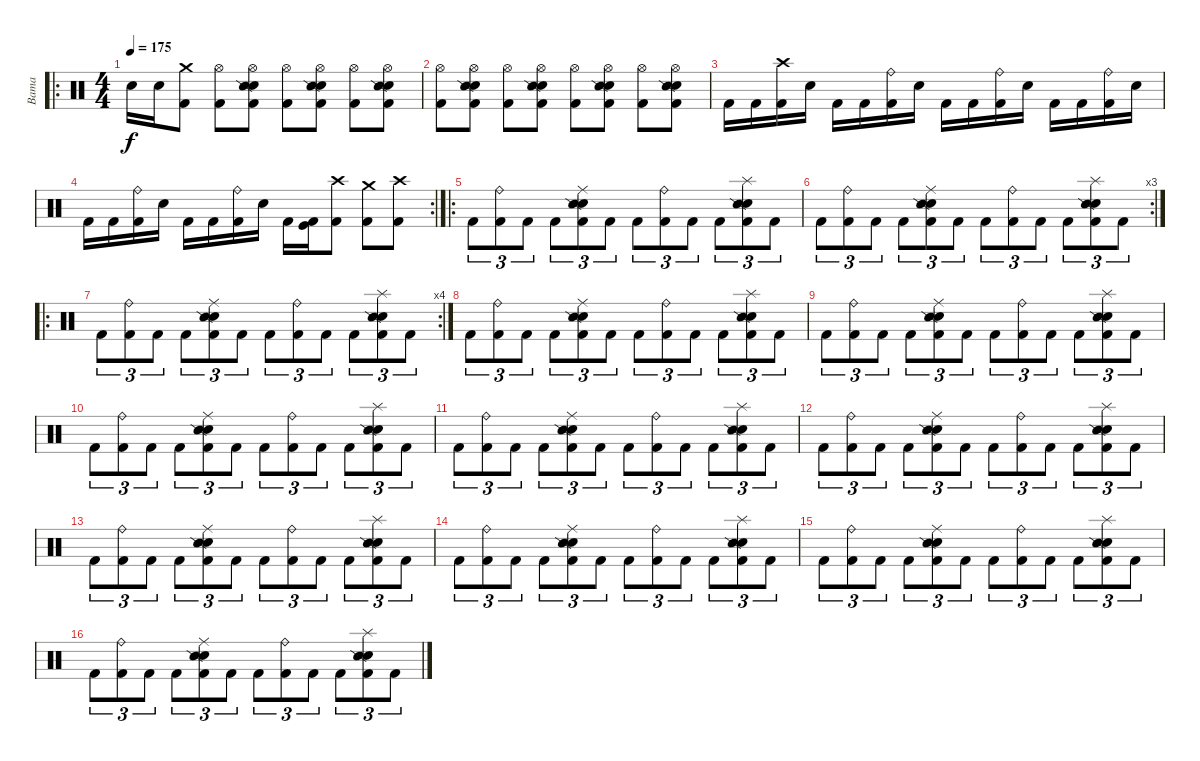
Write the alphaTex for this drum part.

\track ("Bama" "Bama") {instrument percussion}
\staff {score}
\articulation defaults
\ro
\ts (4 4)
\tempo 175
\clef neutral
\ks c "Electric Snare (hit)".16{dy f} "Electric Snare (hit)".16
("Crash medium (hit)" "Kick (hit) 2").8 ("Hi-Hat (open)" "Kick (hit) 2").8 ("Hi-Hat (open)" "Electric Snare (hit)" "Snare (side stick) 2" "Kick (hit) 2").8 ("Hi-Hat (open)" "Kick (hit) 2").8 ("Hi-Hat (open)" "Electric Snare (hit)" "Snare (side stick) 2" "Kick (hit) 2").8 ("Hi-Hat (open)" "Kick (hit) 2").8 ("Hi-Hat (open)" "Electric Snare (hit)" "Snare (side stick) 2" "Kick (hit) 2").8 |
("Hi-Hat (open)" "Kick (hit) 2").8 ("Hi-Hat (open)" "Electric Snare (hit)" "Snare (side stick) 2" "Kick (hit) 2").8 ("Hi-Hat (open)" "Kick (hit) 2").8 ("Hi-Hat (open)" "Electric Snare (hit)" "Snare (side stick) 2" "Kick (hit) 2").8 ("Hi-Hat (open)" "Kick (hit) 2").8 ("Hi-Hat (open)" "Electric Snare (hit)" "Snare (side stick) 2" "Kick (hit) 2").8 ("Hi-Hat (open)" "Kick (hit) 2").8 ("Hi-Hat (open)" "Electric Snare (hit)" "Snare (side stick) 2" "Kick (hit) 2").8 |
"Kick (hit) 2".16 "Kick (hit) 2".16 ("Crash high (hit)" "Kick (hit) 2").16 "Electric Snare (hit)".16 "Kick (hit) 2".16 "Kick (hit) 2".16 ("Ride (bell)" "Kick (hit) 2").16 "Electric Snare (hit)".16 "Kick (hit) 2".16 "Kick (hit) 2".16 ("Ride (bell)" "Kick (hit) 2").16 "Electric Snare (hit)".16 "Kick (hit) 2".16 "Kick (hit) 2".16 ("Ride (bell)" "Kick (hit) 2").16 "Electric Snare (hit)".16 |
\rc 2 "Kick (hit) 2".16 "Kick (hit) 2".16
("Ride (bell)" "Kick (hit) 2").16 "Electric Snare (hit)".16 "Kick (hit) 2".16 "Kick (hit) 2".16 ("Ride (bell)" "Kick (hit) 2").16 "Electric Snare (hit)".16 "Kick (hit) 2".16 ("Kick (hit)" "Kick (hit) 2").16 ("Crash high (hit)" "Kick (hit) 2").8 ("Crash medium (hit)" "Kick (hit) 2").8 ("Crash high (hit)" "Kick (hit) 2").8 |
\ro "Kick (hit) 2".8{tu (3 2)}
("Ride (bell)" "Kick (hit) 2").8{tu (3 2)} "Kick (hit) 2".8{tu (3 2)} "Kick (hit) 2".8{tu (3 2)} ("Ride (middle)" "Electric Snare (hit)" "Snare (side stick) 2" "Kick (hit) 2").8{tu (3 2)} "Kick (hit) 2".8{tu (3 2)} "Kick (hit) 2".8{tu (3 2)} ("Ride (bell)" "Kick (hit) 2").8{tu (3 2)} "Kick (hit) 2".8{tu (3 2)} "Kick (hit) 2".8{tu (3 2)} ("Splash (hit)" "Electric Snare (hit)" "Snare (side stick) 2" "Kick (hit) 2").8{tu (3 2)} "Kick (hit) 2".8{tu (3 2)} |
\rc 3 "Kick (hit) 2".8{tu (3 2)}
("Ride (bell)" "Kick (hit) 2").8{tu (3 2)} "Kick (hit) 2".8{tu (3 2)} "Kick (hit) 2".8{tu (3 2)} ("Ride (middle)" "Electric Snare (hit)" "Snare (side stick) 2" "Kick (hit) 2").8{tu (3 2)} "Kick (hit) 2".8{tu (3 2)} "Kick (hit) 2".8{tu (3 2)} ("Ride (bell)" "Kick (hit) 2").8{tu (3 2)} "Kick (hit) 2".8{tu (3 2)} "Kick (hit) 2".8{tu (3 2)} ("Splash (hit)" "Electric Snare (hit)" "Snare (side stick) 2" "Kick (hit) 2").8{tu (3 2)} "Kick (hit) 2".8{tu (3 2)} |
\ro
\rc 4 "Kick (hit) 2".8{tu (3 2)}
("Ride (bell)" "Kick (hit) 2").8{tu (3 2)} "Kick (hit) 2".8{tu (3 2)} "Kick (hit) 2".8{tu (3 2)} ("Ride (middle)" "Electric Snare (hit)" "Snare (side stick) 2" "Kick (hit) 2").8{tu (3 2)} "Kick (hit) 2".8{tu (3 2)} "Kick (hit) 2".8{tu (3 2)} ("Ride (bell)" "Kick (hit) 2").8{tu (3 2)} "Kick (hit) 2".8{tu (3 2)} "Kick (hit) 2".8{tu (3 2)} ("Splash (hit)" "Electric Snare (hit)" "Snare (side stick) 2" "Kick (hit) 2").8{tu (3 2)} "Kick (hit) 2".8{tu (3 2)} |
"Kick (hit) 2".8{tu (3 2)} ("Ride (bell)" "Kick (hit) 2").8{tu (3 2)} "Kick (hit) 2".8{tu (3 2)} "Kick (hit) 2".8{tu (3 2)} ("Ride (middle)" "Electric Snare (hit)" "Snare (side stick) 2" "Kick (hit) 2").8{tu (3 2)} "Kick (hit) 2".8{tu (3 2)} "Kick (hit) 2".8{tu (3 2)} ("Ride (bell)" "Kick (hit) 2").8{tu (3 2)} "Kick (hit) 2".8{tu (3 2)} "Kick (hit) 2".8{tu (3 2)} ("Splash (hit)" "Electric Snare (hit)" "Snare (side stick) 2" "Kick (hit) 2").8{tu (3 2)} "Kick (hit) 2".8{tu (3 2)} |
"Kick (hit) 2".8{tu (3 2)} ("Ride (bell)" "Kick (hit) 2").8{tu (3 2)} "Kick (hit) 2".8{tu (3 2)} "Kick (hit) 2".8{tu (3 2)} ("Ride (middle)" "Electric Snare (hit)" "Snare (side stick) 2" "Kick (hit) 2").8{tu (3 2)} "Kick (hit) 2".8{tu (3 2)} "Kick (hit) 2".8{tu (3 2)} ("Ride (bell)" "Kick (hit) 2").8{tu (3 2)} "Kick (hit) 2".8{tu (3 2)} "Kick (hit) 2".8{tu (3 2)} ("Splash (hit)" "Electric Snare (hit)" "Snare (side stick) 2" "Kick (hit) 2").8{tu (3 2)} "Kick (hit) 2".8{tu (3 2)} |
"Kick (hit) 2".8{tu (3 2)} ("Ride (bell)" "Kick (hit) 2").8{tu (3 2)} "Kick (hit) 2".8{tu (3 2)} "Kick (hit) 2".8{tu (3 2)} ("Ride (middle)" "Electric Snare (hit)" "Snare (side stick) 2" "Kick (hit) 2").8{tu (3 2)} "Kick (hit) 2".8{tu (3 2)} "Kick (hit) 2".8{tu (3 2)} ("Ride (bell)" "Kick (hit) 2").8{tu (3 2)} "Kick (hit) 2".8{tu (3 2)} "Kick (hit) 2".8{tu (3 2)} ("Splash (hit)" "Electric Snare (hit)" "Snare (side stick) 2" "Kick (hit) 2").8{tu (3 2)} "Kick (hit) 2".8{tu (3 2)} |
"Kick (hit) 2".8{tu (3 2)} ("Ride (bell)" "Kick (hit) 2").8{tu (3 2)} "Kick (hit) 2".8{tu (3 2)} "Kick (hit) 2".8{tu (3 2)} ("Ride (middle)" "Electric Snare (hit)" "Snare (side stick) 2" "Kick (hit) 2").8{tu (3 2)} "Kick (hit) 2".8{tu (3 2)} "Kick (hit) 2".8{tu (3 2)} ("Ride (bell)" "Kick (hit) 2").8{tu (3 2)} "Kick (hit) 2".8{tu (3 2)} "Kick (hit) 2".8{tu (3 2)} ("Splash (hit)" "Electric Snare (hit)" "Snare (side stick) 2" "Kick (hit) 2").8{tu (3 2)} "Kick (hit) 2".8{tu (3 2)} |
"Kick (hit) 2".8{tu (3 2)} ("Ride (bell)" "Kick (hit) 2").8{tu (3 2)} "Kick (hit) 2".8{tu (3 2)} "Kick (hit) 2".8{tu (3 2)} ("Ride (middle)" "Electric Snare (hit)" "Snare (side stick) 2" "Kick (hit) 2").8{tu (3 2)} "Kick (hit) 2".8{tu (3 2)} "Kick (hit) 2".8{tu (3 2)} ("Ride (bell)" "Kick (hit) 2").8{tu (3 2)} "Kick (hit) 2".8{tu (3 2)} "Kick (hit) 2".8{tu (3 2)} ("Splash (hit)" "Electric Snare (hit)" "Snare (side stick) 2" "Kick (hit) 2").8{tu (3 2)} "Kick (hit) 2".8{tu (3 2)} |
"Kick (hit) 2".8{tu (3 2)} ("Ride (bell)" "Kick (hit) 2").8{tu (3 2)} "Kick (hit) 2".8{tu (3 2)} "Kick (hit) 2".8{tu (3 2)} ("Ride (middle)" "Electric Snare (hit)" "Snare (side stick) 2" "Kick (hit) 2").8{tu (3 2)} "Kick (hit) 2".8{tu (3 2)} "Kick (hit) 2".8{tu (3 2)} ("Ride (bell)" "Kick (hit) 2").8{tu (3 2)} "Kick (hit) 2".8{tu (3 2)} "Kick (hit) 2".8{tu (3 2)} ("Splash (hit)" "Electric Snare (hit)" "Snare (side stick) 2" "Kick (hit) 2").8{tu (3 2)} "Kick (hit) 2".8{tu (3 2)} |
"Kick (hit) 2".8{tu (3 2)} ("Ride (bell)" "Kick (hit) 2").8{tu (3 2)} "Kick (hit) 2".8{tu (3 2)} "Kick (hit) 2".8{tu (3 2)} ("Ride (middle)" "Electric Snare (hit)" "Snare (side stick) 2" "Kick (hit) 2").8{tu (3 2)} "Kick (hit) 2".8{tu (3 2)} "Kick (hit) 2".8{tu (3 2)} ("Ride (bell)" "Kick (hit) 2").8{tu (3 2)} "Kick (hit) 2".8{tu (3 2)} "Kick (hit) 2".8{tu (3 2)} ("Splash (hit)" "Electric Snare (hit)" "Snare (side stick) 2" "Kick (hit) 2").8{tu (3 2)} "Kick (hit) 2".8{tu (3 2)} |
"Kick (hit) 2".8{tu (3 2)} ("Ride (bell)" "Kick (hit) 2").8{tu (3 2)} "Kick (hit) 2".8{tu (3 2)} "Kick (hit) 2".8{tu (3 2)} ("Ride (middle)" "Electric Snare (hit)" "Snare (side stick) 2" "Kick (hit) 2").8{tu (3 2)} "Kick (hit) 2".8{tu (3 2)} "Kick (hit) 2".8{tu (3 2)} ("Ride (bell)" "Kick (hit) 2").8{tu (3 2)} "Kick (hit) 2".8{tu (3 2)} "Kick (hit) 2".8{tu (3 2)} ("Splash (hit)" "Electric Snare (hit)" "Snare (side stick) 2" "Kick (hit) 2").8{tu (3 2)} "Kick (hit) 2".8{tu (3 2)} |
"Kick (hit) 2".8{tu (3 2)} ("Ride (bell)" "Kick (hit) 2").8{tu (3 2)} "Kick (hit) 2".8{tu (3 2)} "Kick (hit) 2".8{tu (3 2)} ("Ride (middle)" "Electric Snare (hit)" "Snare (side stick) 2" "Kick (hit) 2").8{tu (3 2)} "Kick (hit) 2".8{tu (3 2)} "Kick (hit) 2".8{tu (3 2)} ("Ride (bell)" "Kick (hit) 2").8{tu (3 2)} "Kick (hit) 2".8{tu (3 2)} "Kick (hit) 2".8{tu (3 2)} ("Splash (hit)" "Electric Snare (hit)" "Snare (side stick) 2" "Kick (hit) 2").8{tu (3 2)} "Kick (hit) 2".8{tu (3 2)}
